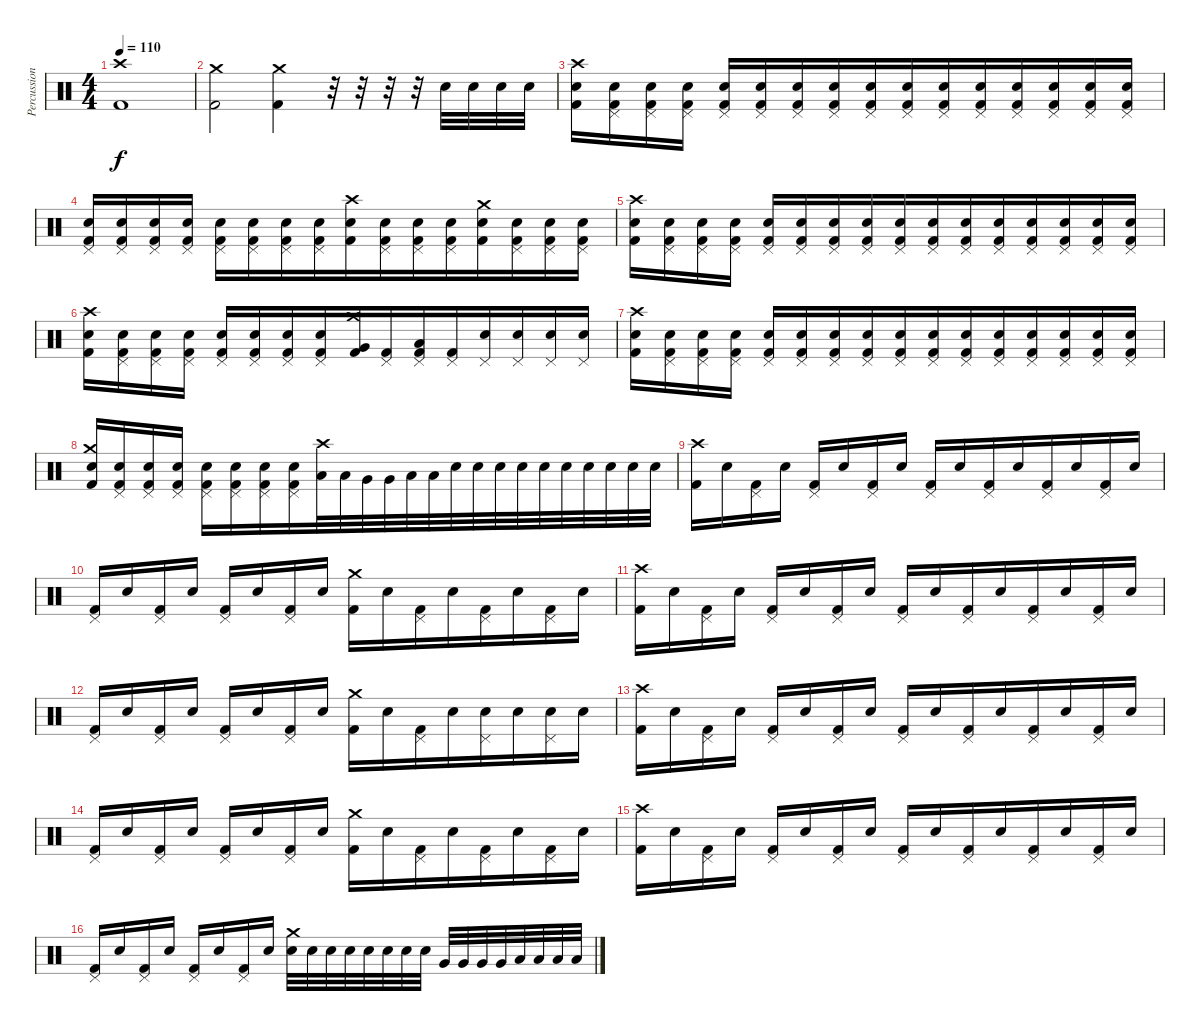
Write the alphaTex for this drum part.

\track ("Percussion" "Percussion") {instrument percussion bank 36}
\staff {score}
\articulation defaults
\ts (4 4)
\tempo 110
\clef neutral
\ks c
("Crash high (hit)" "Kick (hit) 2").1{dy f} |
("Crash medium (hit)" "Kick (hit) 2").2{beam merge} ("Crash medium (hit)" "Kick (hit) 2").4 r.32 r.32 r.32 r.32 "Electric Snare (hit)".32 "Electric Snare (hit)".32{beam merge} "Electric Snare (hit)".32{beam merge} "Electric Snare (hit)".32 |
("Crash high (hit)" "Electric Snare (hit)" "Kick (hit) 2").16 ("Pedal Hi-Hat (hit)" "Electric Snare (hit)" "Kick (hit) 2").16 ("Pedal Hi-Hat (hit)" "Electric Snare (hit)" "Kick (hit) 2").16 ("Pedal Hi-Hat (hit)" "Electric Snare (hit)" "Kick (hit) 2").16 ("Pedal Hi-Hat (hit)" "Electric Snare (hit)" "Kick (hit) 2").16 ("Pedal Hi-Hat (hit)" "Electric Snare (hit)" "Kick (hit) 2").16 ("Pedal Hi-Hat (hit)" "Electric Snare (hit)" "Kick (hit) 2").16 ("Pedal Hi-Hat (hit)" "Electric Snare (hit)" "Kick (hit) 2").16{beam merge} ("Pedal Hi-Hat (hit)" "Electric Snare (hit)" "Kick (hit) 2").16{beam merge} ("Pedal Hi-Hat (hit)" "Electric Snare (hit)" "Kick (hit) 2").16{beam merge} ("Pedal Hi-Hat (hit)" "Electric Snare (hit)" "Kick (hit) 2").16 ("Pedal Hi-Hat (hit)" "Electric Snare (hit)" "Kick (hit) 2").16{beam merge} ("Pedal Hi-Hat (hit)" "Electric Snare (hit)" "Kick (hit) 2").16{beam merge} ("Pedal Hi-Hat (hit)" "Electric Snare (hit)" "Kick (hit) 2").16{beam merge} ("Pedal Hi-Hat (hit)" "Electric Snare (hit)" "Kick (hit) 2").16 ("Pedal Hi-Hat (hit)" "Electric Snare (hit)" "Kick (hit) 2").16 |
("Pedal Hi-Hat (hit)" "Electric Snare (hit)" "Kick (hit) 2").16 ("Pedal Hi-Hat (hit)" "Electric Snare (hit)" "Kick (hit) 2").16 ("Pedal Hi-Hat (hit)" "Electric Snare (hit)" "Kick (hit) 2").16 ("Pedal Hi-Hat (hit)" "Electric Snare (hit)" "Kick (hit) 2").16 ("Pedal Hi-Hat (hit)" "Electric Snare (hit)" "Kick (hit) 2").16 ("Pedal Hi-Hat (hit)" "Electric Snare (hit)" "Kick (hit) 2").16 ("Pedal Hi-Hat (hit)" "Electric Snare (hit)" "Kick (hit) 2").16 ("Pedal Hi-Hat (hit)" "Electric Snare (hit)" "Kick (hit) 2").16{beam merge} ("Crash high (hit)" "Electric Snare (hit)" "Kick (hit) 2").16{beam merge} ("Pedal Hi-Hat (hit)" "Electric Snare (hit)" "Kick (hit) 2").16{beam merge} ("Pedal Hi-Hat (hit)" "Electric Snare (hit)" "Kick (hit) 2").16 ("Pedal Hi-Hat (hit)" "Electric Snare (hit)" "Kick (hit) 2").16{beam merge} ("Crash medium (hit)" "Electric Snare (hit)" "Kick (hit) 2").16{beam merge} ("Pedal Hi-Hat (hit)" "Electric Snare (hit)" "Kick (hit) 2").16{beam merge} ("Pedal Hi-Hat (hit)" "Electric Snare (hit)" "Kick (hit) 2").16 ("Pedal Hi-Hat (hit)" "Electric Snare (hit)" "Kick (hit) 2").16 |
("Crash high (hit)" "Electric Snare (hit)" "Kick (hit) 2").16 ("Pedal Hi-Hat (hit)" "Electric Snare (hit)" "Kick (hit) 2").16 ("Pedal Hi-Hat (hit)" "Electric Snare (hit)" "Kick (hit) 2").16 ("Pedal Hi-Hat (hit)" "Electric Snare (hit)" "Kick (hit) 2").16 ("Pedal Hi-Hat (hit)" "Electric Snare (hit)" "Kick (hit) 2").16 ("Pedal Hi-Hat (hit)" "Electric Snare (hit)" "Kick (hit) 2").16 ("Pedal Hi-Hat (hit)" "Electric Snare (hit)" "Kick (hit) 2").16 ("Pedal Hi-Hat (hit)" "Electric Snare (hit)" "Kick (hit) 2").16{beam merge} ("Pedal Hi-Hat (hit)" "Electric Snare (hit)" "Kick (hit) 2").16{beam merge} ("Pedal Hi-Hat (hit)" "Electric Snare (hit)" "Kick (hit) 2").16{beam merge} ("Pedal Hi-Hat (hit)" "Electric Snare (hit)" "Kick (hit) 2").16 ("Pedal Hi-Hat (hit)" "Electric Snare (hit)" "Kick (hit) 2").16{beam merge} ("Pedal Hi-Hat (hit)" "Electric Snare (hit)" "Kick (hit) 2").16{beam merge} ("Pedal Hi-Hat (hit)" "Electric Snare (hit)" "Kick (hit) 2").16{beam merge} ("Pedal Hi-Hat (hit)" "Electric Snare (hit)" "Kick (hit) 2").16 ("Pedal Hi-Hat (hit)" "Electric Snare (hit)" "Kick (hit) 2").16 |
("Crash high (hit)" "Electric Snare (hit)" "Kick (hit) 2").16 ("Pedal Hi-Hat (hit)" "Electric Snare (hit)" "Kick (hit) 2").16 ("Pedal Hi-Hat (hit)" "Electric Snare (hit)" "Kick (hit) 2").16 ("Pedal Hi-Hat (hit)" "Electric Snare (hit)" "Kick (hit) 2").16 ("Pedal Hi-Hat (hit)" "Electric Snare (hit)" "Kick (hit) 2").16 ("Pedal Hi-Hat (hit)" "Electric Snare (hit)" "Kick (hit) 2").16 ("Pedal Hi-Hat (hit)" "Electric Snare (hit)" "Kick (hit) 2").16 ("Pedal Hi-Hat (hit)" "Electric Snare (hit)" "Kick (hit) 2").16{beam merge} ("Crash medium (hit)" "Very Low Tom (hit)" "Kick (hit) 2").16{beam merge} ("Pedal Hi-Hat (hit)" "Kick (hit) 2").16{beam merge} ("Pedal Hi-Hat (hit)" "Low Tom (hit)" "Kick (hit) 2").16 ("Pedal Hi-Hat (hit)" "Kick (hit) 2").16{beam merge} ("Pedal Hi-Hat (hit)" "Electric Snare (hit)").16{beam merge} ("Pedal Hi-Hat (hit)" "Electric Snare (hit)").16{beam merge} ("Pedal Hi-Hat (hit)" "Electric Snare (hit)").16 ("Pedal Hi-Hat (hit)" "Electric Snare (hit)").16 |
("Crash high (hit)" "Electric Snare (hit)" "Kick (hit) 2").16 ("Pedal Hi-Hat (hit)" "Electric Snare (hit)" "Kick (hit) 2").16 ("Pedal Hi-Hat (hit)" "Electric Snare (hit)" "Kick (hit) 2").16 ("Pedal Hi-Hat (hit)" "Electric Snare (hit)" "Kick (hit) 2").16 ("Pedal Hi-Hat (hit)" "Electric Snare (hit)" "Kick (hit) 2").16 ("Pedal Hi-Hat (hit)" "Electric Snare (hit)" "Kick (hit) 2").16 ("Pedal Hi-Hat (hit)" "Electric Snare (hit)" "Kick (hit) 2").16 ("Pedal Hi-Hat (hit)" "Electric Snare (hit)" "Kick (hit) 2").16{beam merge} ("Pedal Hi-Hat (hit)" "Electric Snare (hit)" "Kick (hit) 2").16{beam merge} ("Pedal Hi-Hat (hit)" "Electric Snare (hit)" "Kick (hit) 2").16{beam merge} ("Pedal Hi-Hat (hit)" "Electric Snare (hit)" "Kick (hit) 2").16 ("Pedal Hi-Hat (hit)" "Electric Snare (hit)" "Kick (hit) 2").16{beam merge} ("Pedal Hi-Hat (hit)" "Electric Snare (hit)" "Kick (hit) 2").16{beam merge} ("Pedal Hi-Hat (hit)" "Electric Snare (hit)" "Kick (hit) 2").16{beam merge} ("Pedal Hi-Hat (hit)" "Electric Snare (hit)" "Kick (hit) 2").16 ("Pedal Hi-Hat (hit)" "Electric Snare (hit)" "Kick (hit) 2").16 |
("Crash medium (hit)" "Electric Snare (hit)" "Kick (hit) 2").16 ("Pedal Hi-Hat (hit)" "Electric Snare (hit)" "Kick (hit) 2").16 ("Pedal Hi-Hat (hit)" "Electric Snare (hit)" "Kick (hit) 2").16 ("Pedal Hi-Hat (hit)" "Electric Snare (hit)" "Kick (hit) 2").16 ("Pedal Hi-Hat (hit)" "Electric Snare (hit)" "Kick (hit) 2").16 ("Pedal Hi-Hat (hit)" "Electric Snare (hit)" "Kick (hit) 2").16 ("Pedal Hi-Hat (hit)" "Electric Snare (hit)" "Kick (hit) 2").16 ("Pedal Hi-Hat (hit)" "Electric Snare (hit)" "Kick (hit) 2").16{beam merge} ("Crash high (hit)" "Low Tom (hit)").32{beam merge} "Low Tom (hit)".32{beam merge} "Very Low Tom (hit)".32 "Very Low Tom (hit)".32{beam merge} "Low Floor Tom (hit)".32{beam merge} "Low Floor Tom (hit)".32{beam merge} "Electric Snare (hit)".32 "Electric Snare (hit)".32{beam merge} "Electric Snare (hit)".32 "Electric Snare (hit)".32{beam merge} "Electric Snare (hit)".32 "Electric Snare (hit)".32{beam merge} "Electric Snare (hit)".32 "Electric Snare (hit)".32 "Electric Snare (hit)".32 "Electric Snare (hit)".32 |
("Crash high (hit)" "Kick (hit) 2").16 "Electric Snare (hit)".16{beam merge} ("Pedal Hi-Hat (hit)" "Kick (hit) 2").16 "Electric Snare (hit)".16 ("Pedal Hi-Hat (hit)" "Kick (hit) 2").16{beam merge} "Electric Snare (hit)".16{beam merge} ("Pedal Hi-Hat (hit)" "Kick (hit) 2").16 "Electric Snare (hit)".16 ("Pedal Hi-Hat (hit)" "Kick (hit) 2").16 "Electric Snare (hit)".16{beam merge} ("Pedal Hi-Hat (hit)" "Kick (hit) 2").16 "Electric Snare (hit)".16{beam merge} ("Pedal Hi-Hat (hit)" "Kick (hit) 2").16{beam merge} "Electric Snare (hit)".16{beam merge} ("Pedal Hi-Hat (hit)" "Kick (hit) 2").16{beam merge} "Electric Snare (hit)".16 |
("Pedal Hi-Hat (hit)" "Kick (hit) 2").16 "Electric Snare (hit)".16{beam merge} ("Pedal Hi-Hat (hit)" "Kick (hit) 2").16 "Electric Snare (hit)".16 ("Pedal Hi-Hat (hit)" "Kick (hit) 2").16{beam merge} "Electric Snare (hit)".16{beam merge} ("Pedal Hi-Hat (hit)" "Kick (hit) 2").16 "Electric Snare (hit)".16 ("Crash medium (hit)" "Kick (hit) 2").16 "Electric Snare (hit)".16{beam merge} ("Pedal Hi-Hat (hit)" "Kick (hit) 2").16 "Electric Snare (hit)".16{beam merge} ("Pedal Hi-Hat (hit)" "Kick (hit) 2").16{beam merge} "Electric Snare (hit)".16{beam merge} ("Pedal Hi-Hat (hit)" "Kick (hit) 2").16{beam merge} "Electric Snare (hit)".16 |
("Crash high (hit)" "Kick (hit) 2").16 "Electric Snare (hit)".16{beam merge} ("Pedal Hi-Hat (hit)" "Kick (hit) 2").16 "Electric Snare (hit)".16 ("Pedal Hi-Hat (hit)" "Kick (hit) 2").16{beam merge} "Electric Snare (hit)".16{beam merge} ("Pedal Hi-Hat (hit)" "Kick (hit) 2").16 "Electric Snare (hit)".16 ("Pedal Hi-Hat (hit)" "Kick (hit) 2").16 "Electric Snare (hit)".16{beam merge} ("Pedal Hi-Hat (hit)" "Kick (hit) 2").16 "Electric Snare (hit)".16{beam merge} ("Pedal Hi-Hat (hit)" "Kick (hit) 2").16{beam merge} "Electric Snare (hit)".16{beam merge} ("Pedal Hi-Hat (hit)" "Kick (hit) 2").16{beam merge} "Electric Snare (hit)".16 |
("Pedal Hi-Hat (hit)" "Kick (hit) 2").16 "Electric Snare (hit)".16{beam merge} ("Pedal Hi-Hat (hit)" "Kick (hit) 2").16 "Electric Snare (hit)".16 ("Pedal Hi-Hat (hit)" "Kick (hit) 2").16{beam merge} "Electric Snare (hit)".16{beam merge} ("Pedal Hi-Hat (hit)" "Kick (hit) 2").16 "Electric Snare (hit)".16 ("Crash medium (hit)" "Kick (hit) 2").16 "Electric Snare (hit)".16{beam merge} ("Pedal Hi-Hat (hit)" "Kick (hit) 2").16 "Electric Snare (hit)".16{beam merge} ("Pedal Hi-Hat (hit)" "Electric Snare (hit)").16{beam merge} "Electric Snare (hit)".16{beam merge} ("Pedal Hi-Hat (hit)" "Electric Snare (hit)").16{beam merge} "Electric Snare (hit)".16 |
("Crash high (hit)" "Kick (hit) 2").16 "Electric Snare (hit)".16{beam merge} ("Pedal Hi-Hat (hit)" "Kick (hit) 2").16 "Electric Snare (hit)".16 ("Pedal Hi-Hat (hit)" "Kick (hit) 2").16{beam merge} "Electric Snare (hit)".16{beam merge} ("Pedal Hi-Hat (hit)" "Kick (hit) 2").16 "Electric Snare (hit)".16 ("Pedal Hi-Hat (hit)" "Kick (hit) 2").16 "Electric Snare (hit)".16{beam merge} ("Pedal Hi-Hat (hit)" "Kick (hit) 2").16 "Electric Snare (hit)".16{beam merge} ("Pedal Hi-Hat (hit)" "Kick (hit) 2").16{beam merge} "Electric Snare (hit)".16{beam merge} ("Pedal Hi-Hat (hit)" "Kick (hit) 2").16{beam merge} "Electric Snare (hit)".16 |
("Pedal Hi-Hat (hit)" "Kick (hit) 2").16 "Electric Snare (hit)".16{beam merge} ("Pedal Hi-Hat (hit)" "Kick (hit) 2").16 "Electric Snare (hit)".16 ("Pedal Hi-Hat (hit)" "Kick (hit) 2").16{beam merge} "Electric Snare (hit)".16{beam merge} ("Pedal Hi-Hat (hit)" "Kick (hit) 2").16 "Electric Snare (hit)".16 ("Crash medium (hit)" "Kick (hit) 2").16 "Electric Snare (hit)".16{beam merge} ("Pedal Hi-Hat (hit)" "Kick (hit) 2").16 "Electric Snare (hit)".16{beam merge} ("Pedal Hi-Hat (hit)" "Kick (hit) 2").16{beam merge} "Electric Snare (hit)".16{beam merge} ("Pedal Hi-Hat (hit)" "Kick (hit) 2").16{beam merge} "Electric Snare (hit)".16 |
("Crash high (hit)" "Kick (hit) 2").16 "Electric Snare (hit)".16{beam merge} ("Pedal Hi-Hat (hit)" "Kick (hit) 2").16 "Electric Snare (hit)".16 ("Pedal Hi-Hat (hit)" "Kick (hit) 2").16{beam merge} "Electric Snare (hit)".16{beam merge} ("Pedal Hi-Hat (hit)" "Kick (hit) 2").16 "Electric Snare (hit)".16 ("Pedal Hi-Hat (hit)" "Kick (hit) 2").16 "Electric Snare (hit)".16{beam merge} ("Pedal Hi-Hat (hit)" "Kick (hit) 2").16 "Electric Snare (hit)".16{beam merge} ("Pedal Hi-Hat (hit)" "Kick (hit) 2").16{beam merge} "Electric Snare (hit)".16{beam merge} ("Pedal Hi-Hat (hit)" "Kick (hit) 2").16{beam merge} "Electric Snare (hit)".16 |
("Pedal Hi-Hat (hit)" "Kick (hit) 2").16 "Electric Snare (hit)".16{beam merge} ("Pedal Hi-Hat (hit)" "Kick (hit) 2").16 "Electric Snare (hit)".16 ("Pedal Hi-Hat (hit)" "Kick (hit) 2").16{beam merge} "Electric Snare (hit)".16{beam merge} ("Pedal Hi-Hat (hit)" "Kick (hit) 2").16 "Electric Snare (hit)".16 ("Crash medium (hit)" "Electric Snare (hit)").32 "Electric Snare (hit)".32{beam merge} "Electric Snare (hit)".32 "Electric Snare (hit)".32{beam merge} "Electric Snare (hit)".32{beam merge} "Electric Snare (hit)".32{beam merge} "Electric Snare (hit)".32{beam merge} "Electric Snare (hit)".32 "Very Low Tom (hit)".32{beam merge} "Very Low Tom (hit)".32 "Very Low Tom (hit)".32 "Very Low Tom (hit)".32{beam merge} "Low Floor Tom (hit)".32 "Low Floor Tom (hit)".32{beam merge} "Low Floor Tom (hit)".32 "Low Floor Tom (hit)".32
